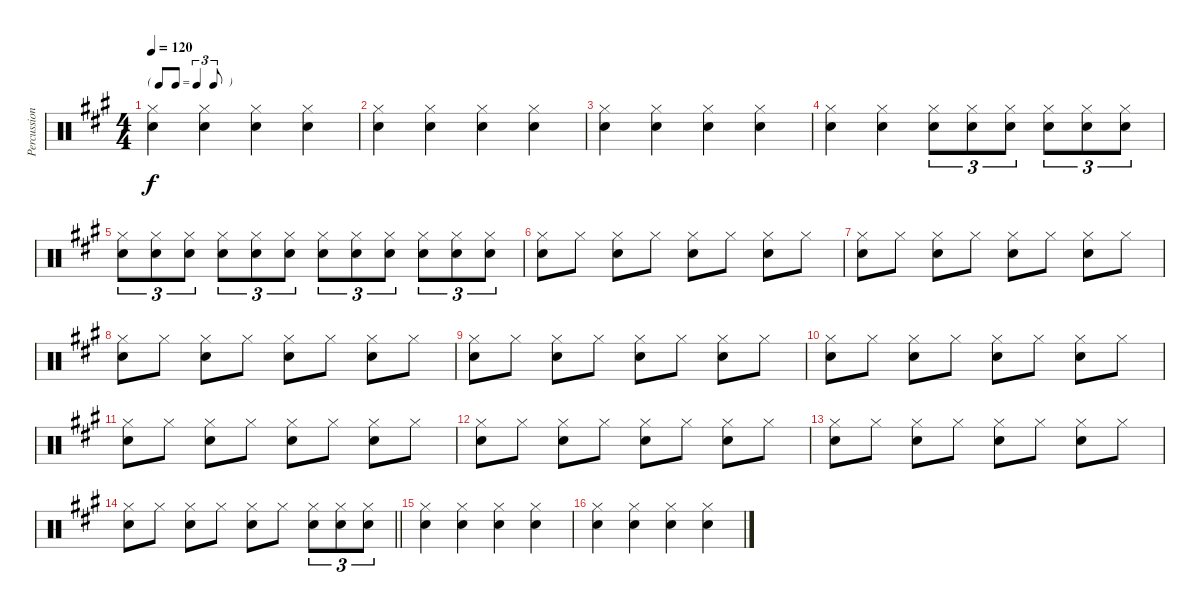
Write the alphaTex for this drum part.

\track ("Percussions" "Percussion") {instrument percussion}
\staff {score}
\articulation defaults
\ts (4 4)
\tf triplet8th
\tempo 120
\clef neutral
\ks a
("Snare (hit) 2" "Hi-Hat (closed)").4{dy f} ("Snare (hit) 2" "Hi-Hat (closed)").4 ("Snare (hit) 2" "Hi-Hat (closed)").4 ("Snare (hit) 2" "Hi-Hat (closed)").4 |
("Snare (hit) 2" "Hi-Hat (closed)").4 ("Snare (hit) 2" "Hi-Hat (closed)").4 ("Snare (hit) 2" "Hi-Hat (closed)").4 ("Snare (hit) 2" "Hi-Hat (closed)").4 |
("Snare (hit) 2" "Hi-Hat (closed)").4 ("Snare (hit) 2" "Hi-Hat (closed)").4 ("Snare (hit) 2" "Hi-Hat (closed)").4 ("Snare (hit) 2" "Hi-Hat (closed)").4 |
("Snare (hit) 2" "Hi-Hat (closed)").4 ("Snare (hit) 2" "Hi-Hat (closed)").4 ("Snare (hit) 2" "Hi-Hat (closed)").8{tu (3 2)} ("Snare (hit) 2" "Hi-Hat (closed)").8{tu (3 2)} ("Snare (hit) 2" "Hi-Hat (closed)").8{tu (3 2)} ("Snare (hit) 2" "Hi-Hat (closed)").8{tu (3 2)} ("Snare (hit) 2" "Hi-Hat (closed)").8{tu (3 2)} ("Snare (hit) 2" "Hi-Hat (closed)").8{tu (3 2)} |
("Snare (hit) 2" "Hi-Hat (closed)").8{tu (3 2)} ("Snare (hit) 2" "Hi-Hat (closed)").8{tu (3 2)} ("Snare (hit) 2" "Hi-Hat (closed)").8{tu (3 2)} ("Snare (hit) 2" "Hi-Hat (closed)").8{tu (3 2)} ("Snare (hit) 2" "Hi-Hat (closed)").8{tu (3 2)} ("Snare (hit) 2" "Hi-Hat (closed)").8{tu (3 2)} ("Snare (hit) 2" "Hi-Hat (closed)").8{tu (3 2)} ("Snare (hit) 2" "Hi-Hat (closed)").8{tu (3 2)} ("Snare (hit) 2" "Hi-Hat (closed)").8{tu (3 2)} ("Snare (hit) 2" "Hi-Hat (closed)").8{tu (3 2)} ("Snare (hit) 2" "Hi-Hat (closed)").8{tu (3 2)} ("Snare (hit) 2" "Hi-Hat (closed)").8{tu (3 2)} |
("Snare (hit) 2" "Hi-Hat (closed)").8 "Hi-Hat (closed)".8 ("Snare (hit) 2" "Hi-Hat (closed)").8 "Hi-Hat (closed)".8 ("Snare (hit) 2" "Hi-Hat (closed)").8 "Hi-Hat (closed)".8 ("Snare (hit) 2" "Hi-Hat (closed)").8 "Hi-Hat (closed)".8 |
("Snare (hit) 2" "Hi-Hat (closed)").8 "Hi-Hat (closed)".8 ("Snare (hit) 2" "Hi-Hat (closed)").8 "Hi-Hat (closed)".8 ("Snare (hit) 2" "Hi-Hat (closed)").8 "Hi-Hat (closed)".8 ("Snare (hit) 2" "Hi-Hat (closed)").8 "Hi-Hat (closed)".8 |
("Snare (hit) 2" "Hi-Hat (closed)").8 "Hi-Hat (closed)".8 ("Snare (hit) 2" "Hi-Hat (closed)").8 "Hi-Hat (closed)".8 ("Snare (hit) 2" "Hi-Hat (closed)").8 "Hi-Hat (closed)".8 ("Snare (hit) 2" "Hi-Hat (closed)").8 "Hi-Hat (closed)".8 |
("Snare (hit) 2" "Hi-Hat (closed)").8 "Hi-Hat (closed)".8 ("Snare (hit) 2" "Hi-Hat (closed)").8 "Hi-Hat (closed)".8 ("Snare (hit) 2" "Hi-Hat (closed)").8 "Hi-Hat (closed)".8 ("Snare (hit) 2" "Hi-Hat (closed)").8 "Hi-Hat (closed)".8 |
("Snare (hit) 2" "Hi-Hat (closed)").8 "Hi-Hat (closed)".8 ("Snare (hit) 2" "Hi-Hat (closed)").8 "Hi-Hat (closed)".8 ("Snare (hit) 2" "Hi-Hat (closed)").8 "Hi-Hat (closed)".8 ("Snare (hit) 2" "Hi-Hat (closed)").8 "Hi-Hat (closed)".8 |
("Snare (hit) 2" "Hi-Hat (closed)").8 "Hi-Hat (closed)".8 ("Snare (hit) 2" "Hi-Hat (closed)").8 "Hi-Hat (closed)".8 ("Snare (hit) 2" "Hi-Hat (closed)").8 "Hi-Hat (closed)".8 ("Snare (hit) 2" "Hi-Hat (closed)").8 "Hi-Hat (closed)".8 |
("Snare (hit) 2" "Hi-Hat (closed)").8 "Hi-Hat (closed)".8 ("Snare (hit) 2" "Hi-Hat (closed)").8 "Hi-Hat (closed)".8 ("Snare (hit) 2" "Hi-Hat (closed)").8 "Hi-Hat (closed)".8 ("Snare (hit) 2" "Hi-Hat (closed)").8 "Hi-Hat (closed)".8 |
("Snare (hit) 2" "Hi-Hat (closed)").8 "Hi-Hat (closed)".8 ("Snare (hit) 2" "Hi-Hat (closed)").8 "Hi-Hat (closed)".8 ("Snare (hit) 2" "Hi-Hat (closed)").8 "Hi-Hat (closed)".8 ("Snare (hit) 2" "Hi-Hat (closed)").8 "Hi-Hat (closed)".8 |
\barLineRight lightlight
("Snare (hit) 2" "Hi-Hat (closed)").8 "Hi-Hat (closed)".8 ("Snare (hit) 2" "Hi-Hat (closed)").8 "Hi-Hat (closed)".8 ("Snare (hit) 2" "Hi-Hat (closed)").8 "Hi-Hat (closed)".8 ("Hi-Hat (closed)" "Snare (hit) 2").8{tu (3 2)} ("Hi-Hat (closed)" "Snare (hit) 2").8{tu (3 2)} ("Hi-Hat (closed)" "Snare (hit) 2").8{tu (3 2)} |
("Snare (hit) 2" "Hi-Hat (closed)").4 ("Snare (hit) 2" "Hi-Hat (closed)").4 ("Snare (hit) 2" "Hi-Hat (closed)").4 ("Snare (hit) 2" "Hi-Hat (closed)").4 |
("Snare (hit) 2" "Hi-Hat (closed)").4 ("Snare (hit) 2" "Hi-Hat (closed)").4 ("Snare (hit) 2" "Hi-Hat (closed)").4 ("Snare (hit) 2" "Hi-Hat (closed)").4
